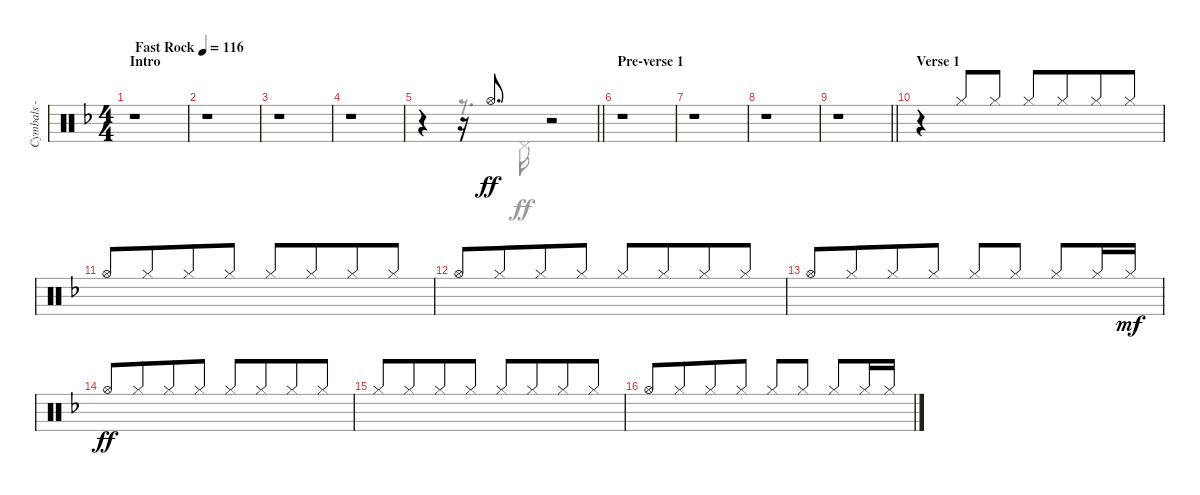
\track ("Cymbals - hi-hat" "Cymbals - ") {instrument percussion}
\staff {score}
\articulation defaults
\voice
\ts (4 4)
\section ("" "Intro")
\tempo (116 "Fast Rock")
\clef neutral
\ks dminor
r.1{dy ff volume 6 balance 10} |
\ks f
r.1 |
r.1 |
r.1 |
\barLineRight lightlight
r.4{volume 10} r.16 "Hi-Hat (open)".8{d} r.2 |
\section ("" "Pre-verse 1")
r.1 |
r.1 |
r.1 |
\barLineRight lightlight
r.1 |
\section ("" "Verse 1")
r.4{volume 7} "Hi-Hat (closed)".8{beam Up} "Hi-Hat (closed)".8{beam Up} "Hi-Hat (closed)".8{beam Up} "Hi-Hat (closed)".8{beam Up beam merge} "Hi-Hat (closed)".8{beam Up} "Hi-Hat (closed)".8{beam Up} |
"Hi-Hat (open)".8{beam Up} "Hi-Hat (closed)".8{beam Up beam merge} "Hi-Hat (closed)".8{beam Up} "Hi-Hat (closed)".8{beam Up} "Hi-Hat (closed)".8{beam Up} "Hi-Hat (closed)".8{beam Up beam merge} "Hi-Hat (closed)".8{beam Up} "Hi-Hat (closed)".8{beam Up} |
"Hi-Hat (open)".8{beam Up} "Hi-Hat (closed)".8{beam Up beam merge} "Hi-Hat (closed)".8{beam Up} "Hi-Hat (closed)".8{beam Up} "Hi-Hat (closed)".8{beam Up} "Hi-Hat (closed)".8{beam Up beam merge} "Hi-Hat (closed)".8{beam Up} "Hi-Hat (closed)".8{beam Up} |
"Hi-Hat (open)".8{beam Up} "Hi-Hat (closed)".8{beam Up beam merge} "Hi-Hat (closed)".8{beam Up} "Hi-Hat (closed)".8{beam Up} "Hi-Hat (closed)".8{beam Up} "Hi-Hat (closed)".8{beam Up beam split} "Hi-Hat (closed)".8{beam Up} "Hi-Hat (closed)".16{beam Up} "Hi-Hat (closed)".16{dy mf beam Up} |
"Hi-Hat (open)".8{dy ff beam Up} "Hi-Hat (closed)".8{beam Up beam merge} "Hi-Hat (closed)".8{beam Up} "Hi-Hat (closed)".8{beam Up} "Hi-Hat (closed)".8{beam Up} "Hi-Hat (closed)".8{beam Up beam merge} "Hi-Hat (closed)".8{beam Up} "Hi-Hat (closed)".8{beam Up} |
"Hi-Hat (closed)".8{beam Up} "Hi-Hat (closed)".8{beam Up beam merge} "Hi-Hat (closed)".8{beam Up} "Hi-Hat (closed)".8{beam Up} "Hi-Hat (closed)".8{beam Up} "Hi-Hat (closed)".8{beam Up beam merge} "Hi-Hat (closed)".8{beam Up} "Hi-Hat (closed)".8{beam Up} |
"Hi-Hat (open)".8{beam Up} "Hi-Hat (closed)".8{beam Up beam merge} "Hi-Hat (closed)".8{beam Up} "Hi-Hat (closed)".8{beam Up} "Hi-Hat (closed)".8{beam Up} "Hi-Hat (closed)".8{beam Up beam split} "Hi-Hat (closed)".8{beam Up} "Hi-Hat (closed)".16{beam Up} "Hi-Hat (closed)".16{beam Up}
\voice
\clef neutral
\ottava regular
\simile none
\ks dminor
|
\ks f
|
|
|
\barLineRight lightlight
r.4 r.8{d} "Pedal Hi-Hat (hit)".16 r.2 |
|
|
|
\barLineRight lightlight
|
|
|
|
|
|
|
